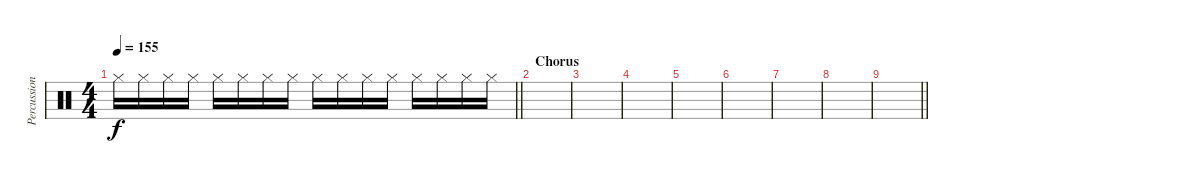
\track ("Percussion Overdub" "Percussion") {instrument percussion}
\staff
\articulation defaults
\ts (4 4)
\tempo 155
\clef neutral
\barLineRight lightlight
\ks c "Hi-Hat (closed)".16{dy f} "Hi-Hat (closed)".16 "Hi-Hat (closed)".16 "Hi-Hat (closed)".16 "Hi-Hat (closed)".16 "Hi-Hat (closed)".16 "Hi-Hat (closed)".16 "Hi-Hat (closed)".16 "Hi-Hat (closed)".16 "Hi-Hat (closed)".16 "Hi-Hat (closed)".16 "Hi-Hat (closed)".16 "Hi-Hat (closed)".16 "Hi-Hat (closed)".16 "Hi-Hat (closed)".16 "Hi-Hat (closed)".16
|
\section ("" "Chorus")
|
|
|
|
|
|
|
\barLineRight lightlight
